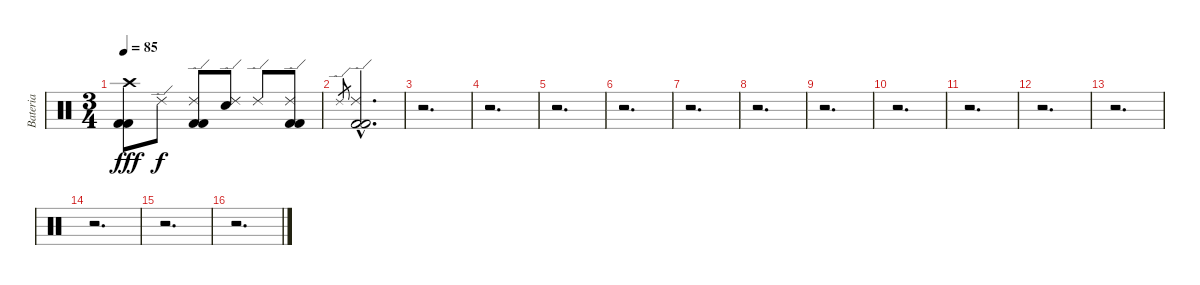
\track ("Bateria" "Bateria") {instrument percussion}
\staff {score}
\articulation defaults
\ts (3 4)
\tempo 85
\clef neutral
\ks c
("Crash high (hit)" "Kick (hit) 2" "Kick (hit) 2").8{dy fff} "Ride (edge) 2".8{dy f} ("Ride (edge) 2" "Kick (hit) 2" "Kick (hit) 2").8 ("Ride (edge) 2" "Electric Snare (hit)").8 "Ride (edge) 2".8 ("Ride (edge) 2" "Kick (hit) 2" "Kick (hit) 2").8 |
"Ride (edge) 2".8{gr} ("Ride (edge) 2"{hac} "Kick (hit) 2"{hac} "Kick (hit) 2"{hac}).2{d} |
r.2{d} |
r.2{d} |
r.2{d} |
r.2{d} |
r.2{d} |
r.2{d} |
r.2{d} |
r.2{d} |
r.2{d} |
r.2{d} |
r.2{d} |
r.2{d} |
r.2{d} |
r.2{d}
